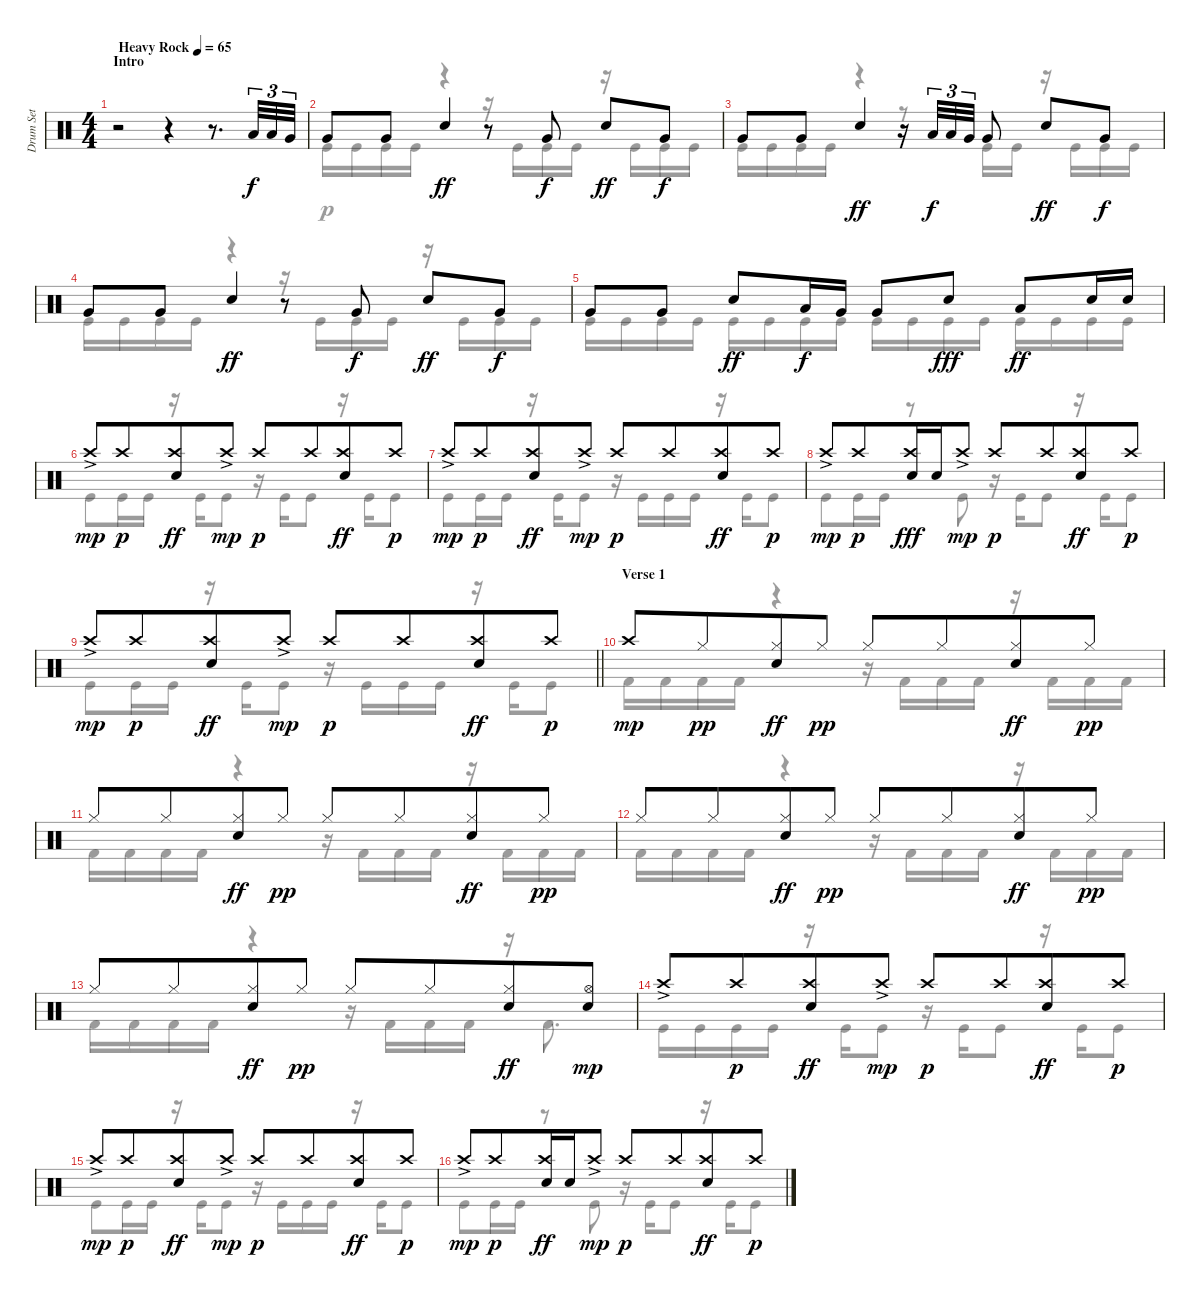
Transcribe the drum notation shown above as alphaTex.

\track ("Drum Set" "Drum Set") {instrument percussion}
\staff {score}
\articulation defaults
\voice
\ts (4 4)
\section ("" "Intro")
\tempo (65 "Heavy Rock")
\clef neutral
\ks c
r.2{dy f} r.4 r.8{d} "Low Tom (hit)".32{tu (3 2)} "Low Tom (hit)".32{tu (3 2)} "Very Low Tom (hit)".32{tu (3 2)} |
"Very Low Tom (hit)".8 "Very Low Tom (hit)".8 "Electric Snare (hit)".4{dy ff} r.8 "Very Low Tom (hit)".8{dy f} "Electric Snare (hit)".8{dy ff} "Very Low Tom (hit)".8{dy f} |
"Very Low Tom (hit)".8 "Very Low Tom (hit)".8 "Electric Snare (hit)".4{dy ff} r.16 "Low Tom (hit)".32{tu (3 2) dy f} "Low Tom (hit)".32{tu (3 2)} "Very Low Tom (hit)".32{tu (3 2)} "Very Low Tom (hit)".8 "Electric Snare (hit)".8{dy ff} "Very Low Tom (hit)".8{dy f} |
"Very Low Tom (hit)".8 "Very Low Tom (hit)".8 "Electric Snare (hit)".4{dy ff} r.8 "Very Low Tom (hit)".8{dy f} "Electric Snare (hit)".8{dy ff} "Very Low Tom (hit)".8{dy f} |
"Very Low Tom (hit)".8 "Very Low Tom (hit)".8 "Electric Snare (hit)".8{dy ff} "Low Tom (hit)".16{dy f} "Very Low Tom (hit)".16 "Very Low Tom (hit)".8 "Electric Snare (hit)".8{dy fff} "Low Tom (hit)".8{dy ff} "Electric Snare (hit)".16 "Electric Snare (hit)".16 |
"Crash high (hit)"{ac}.8{dy mp} "Crash high (hit)".8{dy p beam merge} ("Crash high (hit)" "Electric Snare (hit)").8{dy ff} "Crash high (hit)"{ac}.8{dy mp} "Crash high (hit)".8{dy p} "Crash high (hit)".8{beam merge} ("Crash high (hit)" "Electric Snare (hit)").8{dy ff} "Crash high (hit)".8{dy p} |
"Crash high (hit)"{ac}.8{dy mp} "Crash high (hit)".8{dy p beam merge} ("Crash high (hit)" "Electric Snare (hit)").8{dy ff} "Crash high (hit)"{ac}.8{dy mp} "Crash high (hit)".8{dy p} "Crash high (hit)".8{beam merge} ("Crash high (hit)" "Electric Snare (hit)").8{dy ff} "Crash high (hit)".8{dy p} |
"Crash high (hit)"{ac}.8{dy mp} "Crash high (hit)".8{dy p beam merge} ("Crash high (hit)" "Electric Snare (hit)").16{dy fff} "Electric Snare (hit)".16 "Crash high (hit)"{ac}.8{dy mp} "Crash high (hit)".8{dy p} "Crash high (hit)".8{beam merge} ("Crash high (hit)" "Electric Snare (hit)").8{dy ff} "Crash high (hit)".8{dy p} |
\barLineRight lightlight "Crash high (hit)"{ac}.8{dy mp} "Crash high (hit)".8{dy p beam merge}
("Crash high (hit)" "Electric Snare (hit)").8{dy ff} "Crash high (hit)"{ac}.8{dy mp} "Crash high (hit)".8{dy p} "Crash high (hit)".8{beam merge} ("Crash high (hit)" "Electric Snare (hit)").8{dy ff} "Crash high (hit)".8{dy p} |
\section ("" "Verse 1")
"Crash high (hit)".8{dy mp} "Hi-Hat (closed)".8{dy pp beam merge} ("Hi-Hat (closed)" "Electric Snare (hit)").8{dy ff} "Hi-Hat (closed)".8{dy pp} "Hi-Hat (closed)".8 "Hi-Hat (closed)".8{beam merge} ("Hi-Hat (closed)" "Electric Snare (hit)").8{dy ff} "Hi-Hat (closed)".8{dy pp} |
"Hi-Hat (closed)".8 "Hi-Hat (closed)".8{beam merge} ("Hi-Hat (closed)" "Electric Snare (hit)").8{dy ff} "Hi-Hat (closed)".8{dy pp} "Hi-Hat (closed)".8 "Hi-Hat (closed)".8{beam merge} ("Hi-Hat (closed)" "Electric Snare (hit)").8{dy ff} "Hi-Hat (closed)".8{dy pp} |
"Hi-Hat (closed)".8 "Hi-Hat (closed)".8{beam merge} ("Hi-Hat (closed)" "Electric Snare (hit)").8{dy ff} "Hi-Hat (closed)".8{dy pp} "Hi-Hat (closed)".8 "Hi-Hat (closed)".8{beam merge} ("Hi-Hat (closed)" "Electric Snare (hit)").8{dy ff} "Hi-Hat (closed)".8{dy pp} |
"Hi-Hat (closed)".8 "Hi-Hat (closed)".8{beam merge} ("Hi-Hat (closed)" "Electric Snare (hit)").8{dy ff} "Hi-Hat (closed)".8{dy pp} "Hi-Hat (closed)".8 "Hi-Hat (closed)".8{beam merge} ("Hi-Hat (closed)" "Electric Snare (hit)").8{dy ff} ("Electric Snare (hit)" "Hi-Hat (open)").8{dy mp} |
"Crash high (hit)"{ac}.8 "Crash high (hit)".8{dy p beam merge} ("Crash high (hit)" "Electric Snare (hit)").8{dy ff} "Crash high (hit)"{ac}.8{dy mp} "Crash high (hit)".8{dy p} "Crash high (hit)".8{beam merge} ("Crash high (hit)" "Electric Snare (hit)").8{dy ff} "Crash high (hit)".8{dy p} |
"Crash high (hit)"{ac}.8{dy mp} "Crash high (hit)".8{dy p beam merge} ("Crash high (hit)" "Electric Snare (hit)").8{dy ff} "Crash high (hit)"{ac}.8{dy mp} "Crash high (hit)".8{dy p} "Crash high (hit)".8{beam merge} ("Crash high (hit)" "Electric Snare (hit)").8{dy ff} "Crash high (hit)".8{dy p} |
"Crash high (hit)"{ac}.8{dy mp} "Crash high (hit)".8{dy p beam merge} ("Crash high (hit)" "Electric Snare (hit)").16{dy ff} "Electric Snare (hit)".16 "Crash high (hit)"{ac}.8{dy mp} "Crash high (hit)".8{dy p} "Crash high (hit)".8{beam merge} ("Crash high (hit)" "Electric Snare (hit)").8{dy ff} "Crash high (hit)".8{dy p}
\voice
\clef neutral
\ottava regular
\simile none
\ks c
|
"Kick (hit)".16 "Kick (hit)".16 "Kick (hit)".16 "Kick (hit)".16 r.4 r.16 "Kick (hit)".16 "Kick (hit)".16 "Kick (hit)".16 r.16 "Kick (hit)".16 "Kick (hit)".16 "Kick (hit)".16 |
"Kick (hit)".16 "Kick (hit)".16 "Kick (hit)".16 "Kick (hit)".16 r.4 r.8 "Kick (hit)".16 "Kick (hit)".16 r.16 "Kick (hit)".16 "Kick (hit)".16 "Kick (hit)".16 |
"Kick (hit)".16 "Kick (hit)".16 "Kick (hit)".16 "Kick (hit)".16 r.4 r.16 "Kick (hit)".16 "Kick (hit)".16 "Kick (hit)".16 r.16 "Kick (hit)".16 "Kick (hit)".16 "Kick (hit)".16 |
"Kick (hit)".16 "Kick (hit)".16 "Kick (hit)".16 "Kick (hit)".16 "Kick (hit)".16 "Kick (hit)".16 "Kick (hit)".16 "Kick (hit)".16 "Kick (hit)".16 "Kick (hit)".16 "Kick (hit)".16 "Kick (hit)".16 "Kick (hit)".16 "Kick (hit)".16 "Kick (hit)".16 "Kick (hit)".16 |
"Kick (hit)".8 "Kick (hit)".16 "Kick (hit)".16 r.16 "Kick (hit)".16 "Kick (hit)".8 r.16 "Kick (hit)".16 "Kick (hit)".8 r.16 "Kick (hit)".16 "Kick (hit)".8 |
"Kick (hit)".8 "Kick (hit)".16 "Kick (hit)".16 r.16 "Kick (hit)".16 "Kick (hit)".8 r.16 "Kick (hit)".16 "Kick (hit)".16 "Kick (hit)".16 r.16 "Kick (hit)".16 "Kick (hit)".8 |
"Kick (hit)".8 "Kick (hit)".16 "Kick (hit)".16 r.8 "Kick (hit)".8 r.16 "Kick (hit)".16 "Kick (hit)".8 r.16 "Kick (hit)".16 "Kick (hit)".8 |
\barLineRight lightlight "Kick (hit)".8 "Kick (hit)".16 "Kick (hit)".16
r.16 "Kick (hit)".16 "Kick (hit)".8 r.16 "Kick (hit)".16 "Kick (hit)".16 "Kick (hit)".16 r.16 "Kick (hit)".16 "Kick (hit)".8 |
"Kick (hit) 2".16 "Kick (hit) 2".16 "Kick (hit) 2".16 "Kick (hit) 2".16 r.4 r.16 "Kick (hit) 2".16 "Kick (hit) 2".16 "Kick (hit) 2".16 r.16 "Kick (hit) 2".16 "Kick (hit) 2".16 "Kick (hit) 2".16 |
"Kick (hit) 2".16 "Kick (hit) 2".16 "Kick (hit) 2".16 "Kick (hit) 2".16 r.4 r.16 "Kick (hit) 2".16 "Kick (hit) 2".16 "Kick (hit) 2".16 r.16 "Kick (hit) 2".16 "Kick (hit) 2".16 "Kick (hit) 2".16 |
"Kick (hit) 2".16 "Kick (hit) 2".16 "Kick (hit) 2".16 "Kick (hit) 2".16 r.4 r.16 "Kick (hit) 2".16 "Kick (hit) 2".16 "Kick (hit) 2".16 r.16 "Kick (hit) 2".16 "Kick (hit) 2".16 "Kick (hit) 2".16 |
"Kick (hit) 2".16 "Kick (hit) 2".16 "Kick (hit) 2".16 "Kick (hit) 2".16 r.4 r.16 "Kick (hit) 2".16 "Kick (hit) 2".16 "Kick (hit) 2".16 r.16 "Kick (hit) 2".8{d} |
"Kick (hit)".16 "Kick (hit)".16 "Kick (hit)".16 "Kick (hit)".16 r.16 "Kick (hit)".16 "Kick (hit)".8 r.16 "Kick (hit)".16 "Kick (hit)".8 r.16 "Kick (hit)".16 "Kick (hit)".8 |
"Kick (hit)".8 "Kick (hit)".16 "Kick (hit)".16 r.16 "Kick (hit)".16 "Kick (hit)".8 r.16 "Kick (hit)".16 "Kick (hit)".16 "Kick (hit)".16 r.16 "Kick (hit)".16 "Kick (hit)".8 |
"Kick (hit)".8 "Kick (hit)".16 "Kick (hit)".16 r.8 "Kick (hit)".8 r.16 "Kick (hit)".16 "Kick (hit)".8 r.16 "Kick (hit)".16 "Kick (hit)".8
